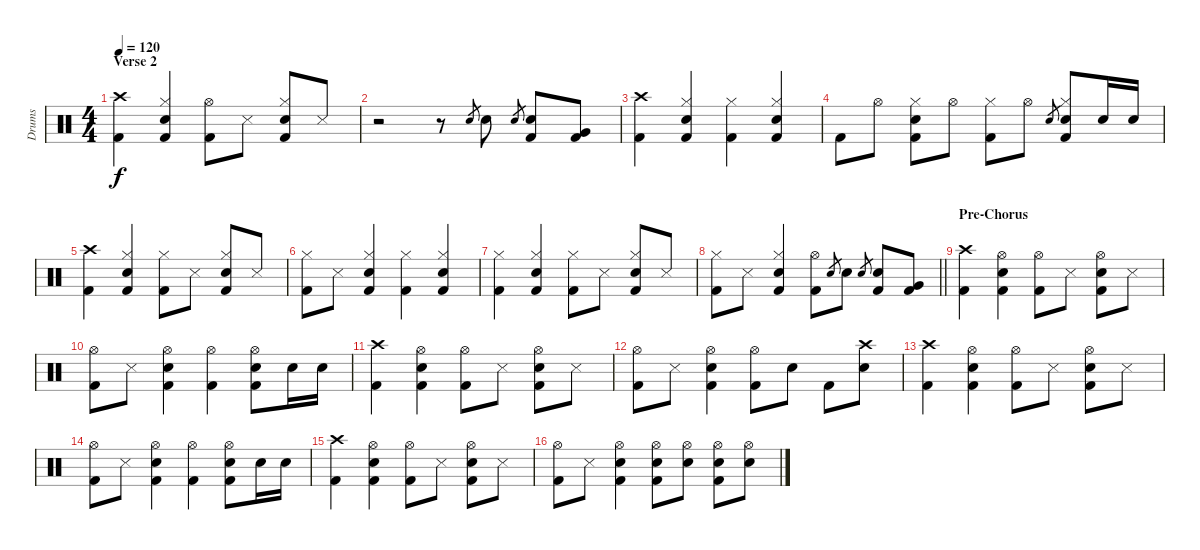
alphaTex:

\track ("Drums" "Drums") {instrument percussion}
\staff {score}
\articulation defaults
\ts (4 4)
\section ("" "Verse 2")
\tempo 120
\clef neutral
\ks c
("Crash high (hit)" "Kick (hit) 2").4{dy f} ("Hi-Hat (closed)" "Snare (hit) 2" "Kick (hit) 2").4 ("Hi-Hat (open)" "Kick (hit) 2").8 "Snare (side stick) 3".8 ("Hi-Hat (closed)" "Snare (hit) 2" "Kick (hit) 2").8 "Snare (side stick) 3".8 |
r.2 r.8 "Snare (hit) 2".8{gr} "Snare (hit) 2".8 "Snare (hit) 2".8{gr} ("Snare (hit) 2" "Kick (hit) 2").8 ("Very Low Tom (hit)" "Kick (hit) 2").8 |
("Crash high (hit)" "Kick (hit) 2").4 ("Hi-Hat (closed)" "Snare (hit) 2" "Kick (hit) 2").4 ("Hi-Hat (closed)" "Kick (hit) 2").4 ("Hi-Hat (closed)" "Snare (hit) 2" "Kick (hit) 2").4 |
"Kick (hit) 2".8 "Hi-Hat (open)".8 ("Hi-Hat (closed)" "Snare (hit) 2" "Kick (hit) 2").8 "Hi-Hat (open)".8 ("Hi-Hat (closed)" "Kick (hit) 2").8 "Hi-Hat (open)".8 "Snare (hit) 2".8{gr} ("Hi-Hat (closed)" "Snare (hit) 2" "Kick (hit) 2").8 "Snare (hit) 2".16 "Snare (hit) 2".16 |
("Crash high (hit)" "Kick (hit) 2").4 ("Hi-Hat (closed)" "Snare (hit) 2" "Kick (hit) 2").4 ("Hi-Hat (closed)" "Kick (hit) 2").8 "Snare (side stick) 3".8 ("Hi-Hat (closed)" "Snare (hit) 2" "Kick (hit) 2").8 "Snare (side stick) 3".8 |
("Hi-Hat (closed)" "Kick (hit) 2").8 "Snare (side stick) 3".8 ("Hi-Hat (closed)" "Snare (hit) 2" "Kick (hit) 2").4 ("Hi-Hat (closed)" "Kick (hit) 2").4 ("Hi-Hat (closed)" "Snare (hit) 2" "Kick (hit) 2").4 |
("Hi-Hat (closed)" "Kick (hit) 2").4 ("Hi-Hat (closed)" "Snare (hit) 2" "Kick (hit) 2").4 ("Hi-Hat (closed)" "Kick (hit) 2").8 "Snare (side stick) 3".8 ("Hi-Hat (closed)" "Snare (hit) 2" "Kick (hit) 2").8 "Snare (side stick) 3".8 |
\barLineRight lightlight
("Hi-Hat (closed)" "Kick (hit) 2").8 "Snare (side stick) 3".8 ("Hi-Hat (closed)" "Snare (hit) 2" "Kick (hit) 2").4 ("Hi-Hat (open)" "Kick (hit) 2").8 "Snare (hit) 2".8{gr} "Snare (hit) 2".8 "Snare (hit) 2".8{gr} ("Snare (hit) 2" "Kick (hit) 2").8 ("Very Low Tom (hit)" "Kick (hit) 2").8 |
\section ("" "Pre-Chorus")
("Crash high (hit)" "Kick (hit) 2").4 ("Hi-Hat (open)" "Snare (hit) 2" "Kick (hit) 2").4 ("Hi-Hat (open)" "Kick (hit) 2").8 "Snare (side stick) 3".8 ("Hi-Hat (open)" "Snare (hit) 2" "Kick (hit) 2").8 "Snare (side stick) 3".8 |
("Hi-Hat (open)" "Kick (hit) 2").8 "Snare (side stick) 3".8 ("Hi-Hat (open)" "Snare (hit) 2" "Kick (hit) 2").4 ("Hi-Hat (open)" "Kick (hit) 2").4 ("Hi-Hat (open)" "Snare (hit) 2" "Kick (hit) 2").8 "Snare (hit) 2".16 "Snare (hit) 2".16 |
("Crash high (hit)" "Kick (hit) 2").4 ("Hi-Hat (open)" "Snare (hit) 2" "Kick (hit) 2").4 ("Hi-Hat (open)" "Kick (hit) 2").8 "Snare (side stick) 3".8 ("Hi-Hat (open)" "Snare (hit) 2" "Kick (hit) 2").8 "Snare (side stick) 3".8 |
("Hi-Hat (open)" "Kick (hit) 2").8 "Snare (side stick) 3".8 ("Hi-Hat (open)" "Snare (hit) 2" "Kick (hit) 2").4 ("Hi-Hat (open)" "Kick (hit) 2").8 "Snare (hit) 2".8 "Kick (hit) 2".8 ("Crash high (hit)" "Snare (hit) 2").8 |
("Crash high (hit)" "Kick (hit) 2").4 ("Hi-Hat (open)" "Snare (hit) 2" "Kick (hit) 2").4 ("Hi-Hat (open)" "Kick (hit) 2").8 "Snare (side stick) 3".8 ("Hi-Hat (open)" "Snare (hit) 2" "Kick (hit) 2").8 "Snare (side stick) 3".8 |
("Hi-Hat (open)" "Kick (hit) 2").8 "Snare (side stick) 3".8 ("Hi-Hat (open)" "Snare (hit) 2" "Kick (hit) 2").4 ("Hi-Hat (open)" "Kick (hit) 2").4 ("Hi-Hat (open)" "Snare (hit) 2" "Kick (hit) 2").8 "Snare (hit) 2".16 "Snare (hit) 2".16 |
("Crash high (hit)" "Kick (hit) 2").4 ("Hi-Hat (open)" "Snare (hit) 2" "Kick (hit) 2").4 ("Hi-Hat (open)" "Kick (hit) 2").8 "Snare (side stick) 3".8 ("Hi-Hat (open)" "Snare (hit) 2" "Kick (hit) 2").8 "Snare (side stick) 3".8 |
("Hi-Hat (open)" "Kick (hit) 2").8 "Snare (side stick) 3".8 ("Hi-Hat (open)" "Snare (hit) 2" "Kick (hit) 2").4 ("Hi-Hat (open)" "Snare (hit) 2" "Kick (hit) 2").8 ("Hi-Hat (open)" "Snare (hit) 2").8 ("Hi-Hat (open)" "Snare (hit) 2" "Kick (hit) 2").8 ("Hi-Hat (open)" "Snare (hit) 2").8
